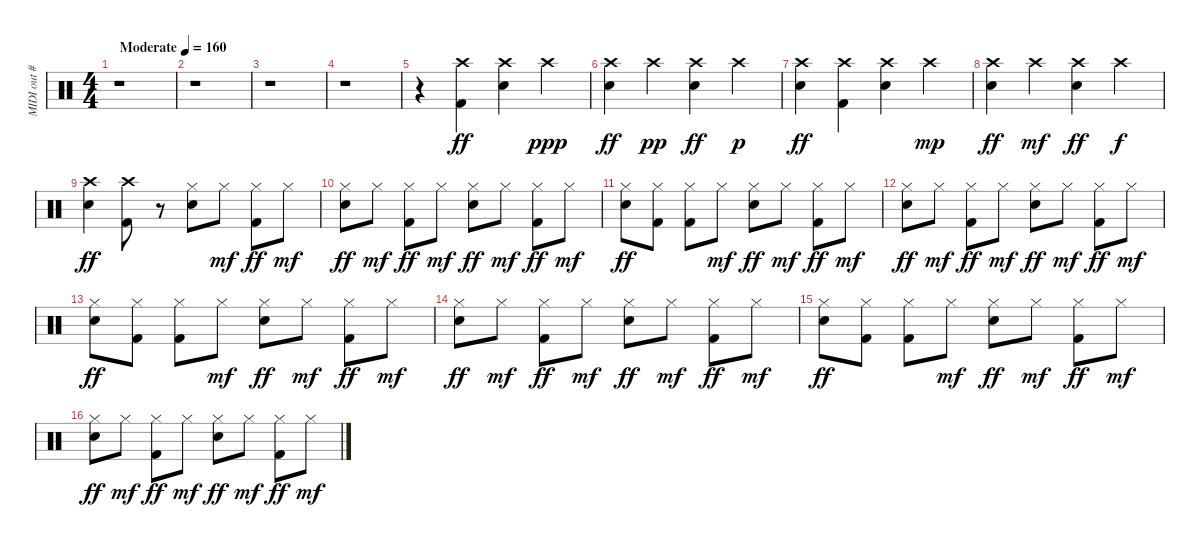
\track ("MIDI out #4" "MIDI out #") {instrument percussion}
\staff {score}
\articulation defaults
\ts (4 4)
\tempo (160 "Moderate")
\clef neutral
\ks c
r.1{dy ff} |
r.1 |
r.1 |
r.1 |
r.4 ("Crash high (hit)" "Kick (hit) 2").4 ("Crash high (hit)" "Snare (hit) 2").4 "Crash high (hit)".4{dy ppp} |
("Crash high (hit)" "Snare (hit) 2").4{dy ff} "Crash high (hit)".4{dy pp} ("Crash high (hit)" "Snare (hit) 2").4{dy ff} "Crash high (hit)".4{dy p} |
("Crash high (hit)" "Snare (hit) 2").4{dy ff} ("Crash high (hit)" "Kick (hit) 2").4 ("Crash high (hit)" "Snare (hit) 2").4 "Crash high (hit)".4{dy mp} |
("Crash high (hit)" "Snare (hit) 2").4{dy ff} "Crash high (hit)".4{dy mf} ("Crash high (hit)" "Snare (hit) 2").4{dy ff} "Crash high (hit)".4{dy f} |
("Crash high (hit)" "Snare (hit) 2").4{dy ff} ("Crash high (hit)" "Kick (hit) 2").8 r.8 ("Hi-Hat (closed)" "Snare (hit) 2").8 "Hi-Hat (closed)".8{dy mf} ("Hi-Hat (closed)" "Kick (hit) 2").8{dy ff} "Hi-Hat (closed)".8{dy mf} |
("Hi-Hat (closed)" "Snare (hit) 2").8{dy ff} "Hi-Hat (closed)".8{dy mf} ("Hi-Hat (closed)" "Kick (hit) 2").8{dy ff} "Hi-Hat (closed)".8{dy mf} ("Hi-Hat (closed)" "Snare (hit) 2").8{dy ff} "Hi-Hat (closed)".8{dy mf} ("Hi-Hat (closed)" "Kick (hit) 2").8{dy ff} "Hi-Hat (closed)".8{dy mf} |
("Hi-Hat (closed)" "Snare (hit) 2").8{dy ff} ("Hi-Hat (closed)" "Kick (hit) 2").8 ("Hi-Hat (closed)" "Kick (hit) 2").8 "Hi-Hat (closed)".8{dy mf} ("Hi-Hat (closed)" "Snare (hit) 2").8{dy ff} "Hi-Hat (closed)".8{dy mf} ("Hi-Hat (closed)" "Kick (hit) 2").8{dy ff} "Hi-Hat (closed)".8{dy mf} |
("Hi-Hat (closed)" "Snare (hit) 2").8{dy ff} "Hi-Hat (closed)".8{dy mf} ("Hi-Hat (closed)" "Kick (hit) 2").8{dy ff} "Hi-Hat (closed)".8{dy mf} ("Hi-Hat (closed)" "Snare (hit) 2").8{dy ff} "Hi-Hat (closed)".8{dy mf} ("Hi-Hat (closed)" "Kick (hit) 2").8{dy ff} "Hi-Hat (closed)".8{dy mf} |
("Hi-Hat (closed)" "Snare (hit) 2").8{dy ff} ("Hi-Hat (closed)" "Kick (hit) 2").8 ("Hi-Hat (closed)" "Kick (hit) 2").8 "Hi-Hat (closed)".8{dy mf} ("Hi-Hat (closed)" "Snare (hit) 2").8{dy ff} "Hi-Hat (closed)".8{dy mf} ("Hi-Hat (closed)" "Kick (hit) 2").8{dy ff} "Hi-Hat (closed)".8{dy mf} |
("Hi-Hat (closed)" "Snare (hit) 2").8{dy ff} "Hi-Hat (closed)".8{dy mf} ("Hi-Hat (closed)" "Kick (hit) 2").8{dy ff} "Hi-Hat (closed)".8{dy mf} ("Hi-Hat (closed)" "Snare (hit) 2").8{dy ff} "Hi-Hat (closed)".8{dy mf} ("Hi-Hat (closed)" "Kick (hit) 2").8{dy ff} "Hi-Hat (closed)".8{dy mf} |
("Hi-Hat (closed)" "Snare (hit) 2").8{dy ff} ("Hi-Hat (closed)" "Kick (hit) 2").8 ("Hi-Hat (closed)" "Kick (hit) 2").8 "Hi-Hat (closed)".8{dy mf} ("Hi-Hat (closed)" "Snare (hit) 2").8{dy ff} "Hi-Hat (closed)".8{dy mf} ("Hi-Hat (closed)" "Kick (hit) 2").8{dy ff} "Hi-Hat (closed)".8{dy mf} |
("Hi-Hat (closed)" "Snare (hit) 2").8{dy ff} "Hi-Hat (closed)".8{dy mf} ("Hi-Hat (closed)" "Kick (hit) 2").8{dy ff} "Hi-Hat (closed)".8{dy mf} ("Hi-Hat (closed)" "Snare (hit) 2").8{dy ff} "Hi-Hat (closed)".8{dy mf} ("Hi-Hat (closed)" "Kick (hit) 2").8{dy ff} "Hi-Hat (closed)".8{dy mf}
